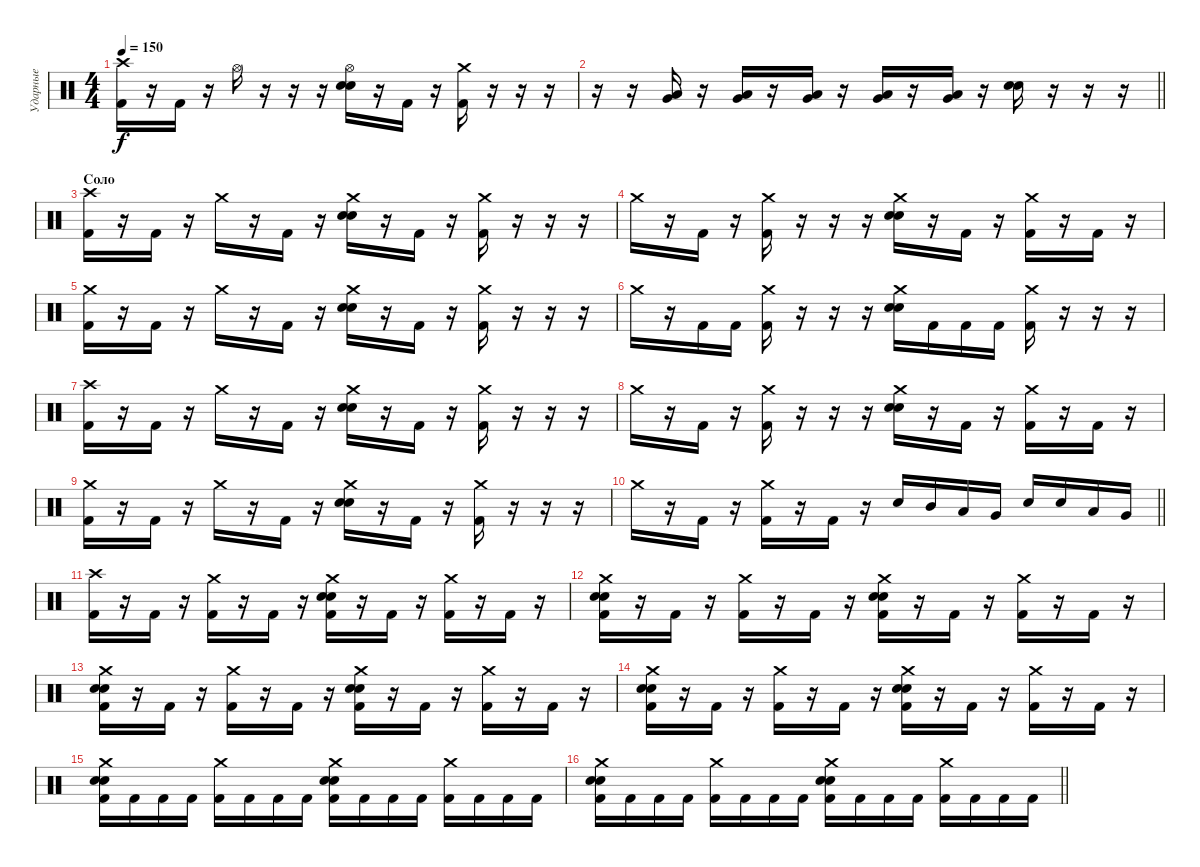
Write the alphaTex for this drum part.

\track ("Ударные" "Ударные") {solo instrument percussion}
\staff {score}
\articulation defaults
\ts (4 4)
\tempo 150
\clef neutral
\ks c
("Crash high (hit)" "Kick (hit) 2").16{dy f} r.16 "Kick (hit) 2".16 r.16 "Hi-Hat (open)".16 r.16 r.16 r.16 ("Hi-Hat (open)" "Electric Snare (hit)" "Snare (hit) 2").16 r.16 "Kick (hit) 2".16 r.16 ("Crash medium (hit)" "Kick (hit) 2").16 r.16 r.16 r.16 |
\barLineRight lightlight
r.16 r.16 ("Low Floor Tom (hit)" "Very Low Tom (hit)").16 r.16 ("Low Floor Tom (hit)" "Very Low Tom (hit)").16 r.16 ("Low Floor Tom (hit)" "Very Low Tom (hit)").16 r.16 ("Low Floor Tom (hit)" "Very Low Tom (hit)").16 r.16 ("Low Floor Tom (hit)" "Very Low Tom (hit)").16 r.16 ("Electric Snare (hit)" "Snare (hit) 2").16 r.16 r.16 r.16 |
\section ("" "Соло")
("Crash high (hit)" "Kick (hit) 2").16 r.16 "Kick (hit) 2".16 r.16 "Crash medium (hit)".16 r.16 "Kick (hit) 2".16 r.16 ("Crash medium (hit)" "Electric Snare (hit)" "Snare (hit) 2").16 r.16 "Kick (hit) 2".16 r.16 ("Crash medium (hit)" "Kick (hit) 2").16 r.16 r.16 r.16 |
"Crash medium (hit)".16 r.16 "Kick (hit) 2".16 r.16 ("Crash medium (hit)" "Kick (hit) 2").16 r.16 r.16 r.16 ("Crash medium (hit)" "Electric Snare (hit)" "Snare (hit) 2").16 r.16 "Kick (hit) 2".16 r.16 ("Crash medium (hit)" "Kick (hit) 2").16 r.16 "Kick (hit) 2".16 r.16 |
("Crash medium (hit)" "Kick (hit) 2").16 r.16 "Kick (hit) 2".16 r.16 "Crash medium (hit)".16 r.16 "Kick (hit) 2".16 r.16 ("Crash medium (hit)" "Electric Snare (hit)" "Snare (hit) 2").16 r.16 "Kick (hit) 2".16 r.16 ("Crash medium (hit)" "Kick (hit) 2").16 r.16 r.16 r.16 |
"Crash medium (hit)".16 r.16 "Kick (hit) 2".16 "Kick (hit) 2".16 ("Crash medium (hit)" "Kick (hit) 2").16 r.16 r.16 r.16 ("Crash medium (hit)" "Electric Snare (hit)" "Snare (hit) 2").16 "Kick (hit) 2".16 "Kick (hit) 2".16 "Kick (hit) 2".16 ("Crash medium (hit)" "Kick (hit) 2").16 r.16 r.16 r.16 |
("Crash high (hit)" "Kick (hit) 2").16 r.16 "Kick (hit) 2".16 r.16 "Crash medium (hit)".16 r.16 "Kick (hit) 2".16 r.16 ("Crash medium (hit)" "Electric Snare (hit)" "Snare (hit) 2").16 r.16 "Kick (hit) 2".16 r.16 ("Crash medium (hit)" "Kick (hit) 2").16 r.16 r.16 r.16 |
"Crash medium (hit)".16 r.16 "Kick (hit) 2".16 r.16 ("Crash medium (hit)" "Kick (hit) 2").16 r.16 r.16 r.16 ("Crash medium (hit)" "Electric Snare (hit)" "Snare (hit) 2").16 r.16 "Kick (hit) 2".16 r.16 ("Crash medium (hit)" "Kick (hit) 2").16 r.16 "Kick (hit) 2".16 r.16 |
("Crash medium (hit)" "Kick (hit) 2").16 r.16 "Kick (hit) 2".16 r.16 "Crash medium (hit)".16 r.16 "Kick (hit) 2".16 r.16 ("Crash medium (hit)" "Electric Snare (hit)" "Snare (hit) 2").16 r.16 "Kick (hit) 2".16 r.16 ("Crash medium (hit)" "Kick (hit) 2").16 r.16 r.16 r.16 |
\barLineRight lightlight "Crash medium (hit)".16
r.16 "Kick (hit) 2".16 r.16 ("Crash medium (hit)" "Kick (hit) 2").16 r.16 "Kick (hit) 2".16 r.16 "Snare (hit) 2".16 "Mid Tom (hit)".16 "Low Tom (hit)".16 "Very Low Tom (hit)".16 "Snare (hit) 2".16 "Snare (hit) 2".16 "Low Tom (hit)".16 "Very Low Tom (hit)".16 |
("Crash high (hit)" "Kick (hit) 2").16 r.16 "Kick (hit) 2".16 r.16 ("Crash medium (hit)" "Kick (hit) 2").16 r.16 "Kick (hit) 2".16 r.16 ("Crash medium (hit)" "Electric Snare (hit)" "Snare (hit) 2" "Kick (hit) 2").16 r.16 "Kick (hit) 2".16 r.16 ("Crash medium (hit)" "Kick (hit) 2").16 r.16 "Kick (hit) 2".16 r.16 |
("Crash medium (hit)" "Electric Snare (hit)" "Snare (hit) 2" "Kick (hit) 2").16 r.16 "Kick (hit) 2".16 r.16 ("Crash medium (hit)" "Kick (hit) 2").16 r.16 "Kick (hit) 2".16 r.16 ("Crash medium (hit)" "Electric Snare (hit)" "Snare (hit) 2" "Kick (hit) 2").16 r.16 "Kick (hit) 2".16 r.16 ("Crash medium (hit)" "Kick (hit) 2").16 r.16 "Kick (hit) 2".16 r.16 |
("Crash medium (hit)" "Electric Snare (hit)" "Snare (hit) 2" "Kick (hit) 2").16 r.16 "Kick (hit) 2".16 r.16 ("Crash medium (hit)" "Kick (hit) 2").16 r.16 "Kick (hit) 2".16 r.16 ("Crash medium (hit)" "Electric Snare (hit)" "Snare (hit) 2" "Kick (hit) 2").16 r.16 "Kick (hit) 2".16 r.16 ("Crash medium (hit)" "Kick (hit) 2").16 r.16 "Kick (hit) 2".16 r.16 |
("Crash medium (hit)" "Electric Snare (hit)" "Snare (hit) 2" "Kick (hit) 2").16 r.16 "Kick (hit) 2".16 r.16 ("Crash medium (hit)" "Kick (hit) 2").16 r.16 "Kick (hit) 2".16 r.16 ("Crash medium (hit)" "Electric Snare (hit)" "Snare (hit) 2" "Kick (hit) 2").16 r.16 "Kick (hit) 2".16 r.16 ("Crash medium (hit)" "Kick (hit) 2").16 r.16 "Kick (hit) 2".16 r.16 |
("Crash medium (hit)" "Electric Snare (hit)" "Snare (hit) 2" "Kick (hit) 2").16 "Kick (hit) 2".16 "Kick (hit) 2".16 "Kick (hit) 2".16 ("Crash medium (hit)" "Kick (hit) 2").16 "Kick (hit) 2".16 "Kick (hit) 2".16 "Kick (hit) 2".16 ("Crash medium (hit)" "Electric Snare (hit)" "Snare (hit) 2" "Kick (hit) 2").16 "Kick (hit) 2".16 "Kick (hit) 2".16 "Kick (hit) 2".16 ("Crash medium (hit)" "Kick (hit) 2").16 "Kick (hit) 2".16 "Kick (hit) 2".16 "Kick (hit) 2".16 |
\barLineRight lightlight
("Crash medium (hit)" "Electric Snare (hit)" "Snare (hit) 2" "Kick (hit) 2").16 "Kick (hit) 2".16 "Kick (hit) 2".16 "Kick (hit) 2".16 ("Crash medium (hit)" "Kick (hit) 2").16 "Kick (hit) 2".16 "Kick (hit) 2".16 "Kick (hit) 2".16 ("Crash medium (hit)" "Electric Snare (hit)" "Snare (hit) 2" "Kick (hit) 2").16 "Kick (hit) 2".16 "Kick (hit) 2".16 "Kick (hit) 2".16 ("Crash medium (hit)" "Kick (hit) 2").16 "Kick (hit) 2".16 "Kick (hit) 2".16 "Kick (hit) 2".16
